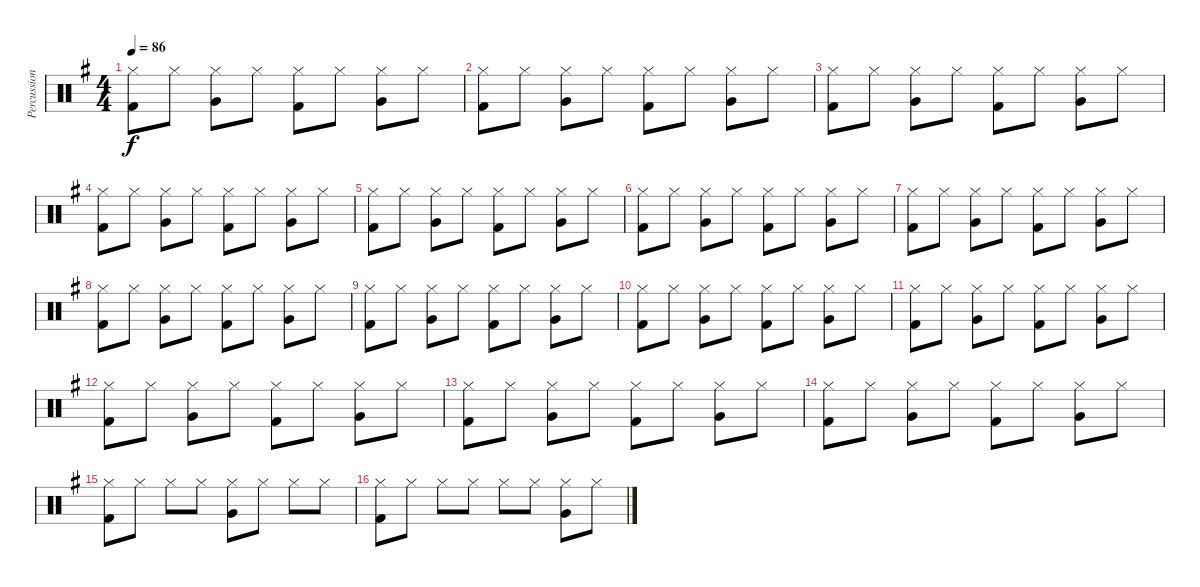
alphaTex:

\track ("Percussions" "Percussion") {instrument percussion}
\staff {score}
\articulation defaults
\ts (4 4)
\tempo 86
\clef neutral
\ks g
("Hi-Hat (closed)" "Kick (hit) 2").8{dy f} "Hi-Hat (closed)".8 ("Hi-Hat (closed)" "Very Low Tom (hit)").8 "Hi-Hat (closed)".8 ("Hi-Hat (closed)" "Kick (hit) 2").8 "Hi-Hat (closed)".8 ("Hi-Hat (closed)" "Very Low Tom (hit)").8 "Hi-Hat (closed)".8 |
("Hi-Hat (closed)" "Kick (hit) 2").8 "Hi-Hat (closed)".8 ("Hi-Hat (closed)" "Very Low Tom (hit)").8 "Hi-Hat (closed)".8 ("Hi-Hat (closed)" "Kick (hit) 2").8 "Hi-Hat (closed)".8 ("Hi-Hat (closed)" "Very Low Tom (hit)").8 "Hi-Hat (closed)".8 |
("Hi-Hat (closed)" "Kick (hit) 2").8 "Hi-Hat (closed)".8 ("Hi-Hat (closed)" "Very Low Tom (hit)").8 "Hi-Hat (closed)".8 ("Hi-Hat (closed)" "Kick (hit) 2").8 "Hi-Hat (closed)".8 ("Hi-Hat (closed)" "Very Low Tom (hit)").8 "Hi-Hat (closed)".8 |
("Hi-Hat (closed)" "Kick (hit) 2").8 "Hi-Hat (closed)".8 ("Hi-Hat (closed)" "Very Low Tom (hit)").8 "Hi-Hat (closed)".8 ("Hi-Hat (closed)" "Kick (hit) 2").8 "Hi-Hat (closed)".8 ("Hi-Hat (closed)" "Very Low Tom (hit)").8 "Hi-Hat (closed)".8 |
("Hi-Hat (closed)" "Kick (hit) 2").8 "Hi-Hat (closed)".8 ("Hi-Hat (closed)" "Very Low Tom (hit)").8 "Hi-Hat (closed)".8 ("Hi-Hat (closed)" "Kick (hit) 2").8 "Hi-Hat (closed)".8 ("Hi-Hat (closed)" "Very Low Tom (hit)").8 "Hi-Hat (closed)".8 |
("Hi-Hat (closed)" "Kick (hit) 2").8 "Hi-Hat (closed)".8 ("Hi-Hat (closed)" "Very Low Tom (hit)").8 "Hi-Hat (closed)".8 ("Hi-Hat (closed)" "Kick (hit) 2").8 "Hi-Hat (closed)".8 ("Hi-Hat (closed)" "Very Low Tom (hit)").8 "Hi-Hat (closed)".8 |
("Hi-Hat (closed)" "Kick (hit) 2").8 "Hi-Hat (closed)".8 ("Hi-Hat (closed)" "Very Low Tom (hit)").8 "Hi-Hat (closed)".8 ("Hi-Hat (closed)" "Kick (hit) 2").8 "Hi-Hat (closed)".8 ("Hi-Hat (closed)" "Very Low Tom (hit)").8 "Hi-Hat (closed)".8 |
("Hi-Hat (closed)" "Kick (hit) 2").8 "Hi-Hat (closed)".8 ("Hi-Hat (closed)" "Very Low Tom (hit)").8 "Hi-Hat (closed)".8 ("Hi-Hat (closed)" "Kick (hit) 2").8 "Hi-Hat (closed)".8 ("Hi-Hat (closed)" "Very Low Tom (hit)").8 "Hi-Hat (closed)".8 |
("Hi-Hat (closed)" "Kick (hit) 2").8 "Hi-Hat (closed)".8 ("Hi-Hat (closed)" "Very Low Tom (hit)").8 "Hi-Hat (closed)".8 ("Hi-Hat (closed)" "Kick (hit) 2").8 "Hi-Hat (closed)".8 ("Hi-Hat (closed)" "Very Low Tom (hit)").8 "Hi-Hat (closed)".8 |
("Hi-Hat (closed)" "Kick (hit) 2").8 "Hi-Hat (closed)".8 ("Hi-Hat (closed)" "Very Low Tom (hit)").8 "Hi-Hat (closed)".8 ("Hi-Hat (closed)" "Kick (hit) 2").8 "Hi-Hat (closed)".8 ("Hi-Hat (closed)" "Very Low Tom (hit)").8 "Hi-Hat (closed)".8 |
("Hi-Hat (closed)" "Kick (hit) 2").8 "Hi-Hat (closed)".8 ("Hi-Hat (closed)" "Very Low Tom (hit)").8 "Hi-Hat (closed)".8 ("Hi-Hat (closed)" "Kick (hit) 2").8 "Hi-Hat (closed)".8 ("Hi-Hat (closed)" "Very Low Tom (hit)").8 "Hi-Hat (closed)".8 |
("Hi-Hat (closed)" "Kick (hit) 2").8 "Hi-Hat (closed)".8 ("Hi-Hat (closed)" "Very Low Tom (hit)").8 "Hi-Hat (closed)".8 ("Hi-Hat (closed)" "Kick (hit) 2").8 "Hi-Hat (closed)".8 ("Hi-Hat (closed)" "Very Low Tom (hit)").8 "Hi-Hat (closed)".8 |
("Hi-Hat (closed)" "Kick (hit) 2").8 "Hi-Hat (closed)".8 ("Hi-Hat (closed)" "Very Low Tom (hit)").8 "Hi-Hat (closed)".8 ("Hi-Hat (closed)" "Kick (hit) 2").8 "Hi-Hat (closed)".8 ("Hi-Hat (closed)" "Very Low Tom (hit)").8 "Hi-Hat (closed)".8 |
("Hi-Hat (closed)" "Kick (hit) 2").8 "Hi-Hat (closed)".8 ("Hi-Hat (closed)" "Very Low Tom (hit)").8 "Hi-Hat (closed)".8 ("Hi-Hat (closed)" "Kick (hit) 2").8 "Hi-Hat (closed)".8 ("Hi-Hat (closed)" "Very Low Tom (hit)").8 "Hi-Hat (closed)".8 |
("Hi-Hat (closed)" "Kick (hit) 2").8 "Hi-Hat (closed)".8 "Hi-Hat (closed)".8 "Hi-Hat (closed)".8 ("Hi-Hat (closed)" "Very Low Tom (hit)").8 "Hi-Hat (closed)".8 "Hi-Hat (closed)".8 "Hi-Hat (closed)".8 |
("Hi-Hat (closed)" "Kick (hit) 2").8 "Hi-Hat (closed)".8 "Hi-Hat (closed)".8 "Hi-Hat (closed)".8 "Hi-Hat (closed)".8 "Hi-Hat (closed)".8 ("Hi-Hat (closed)" "Very Low Tom (hit)").8 "Hi-Hat (closed)".8
